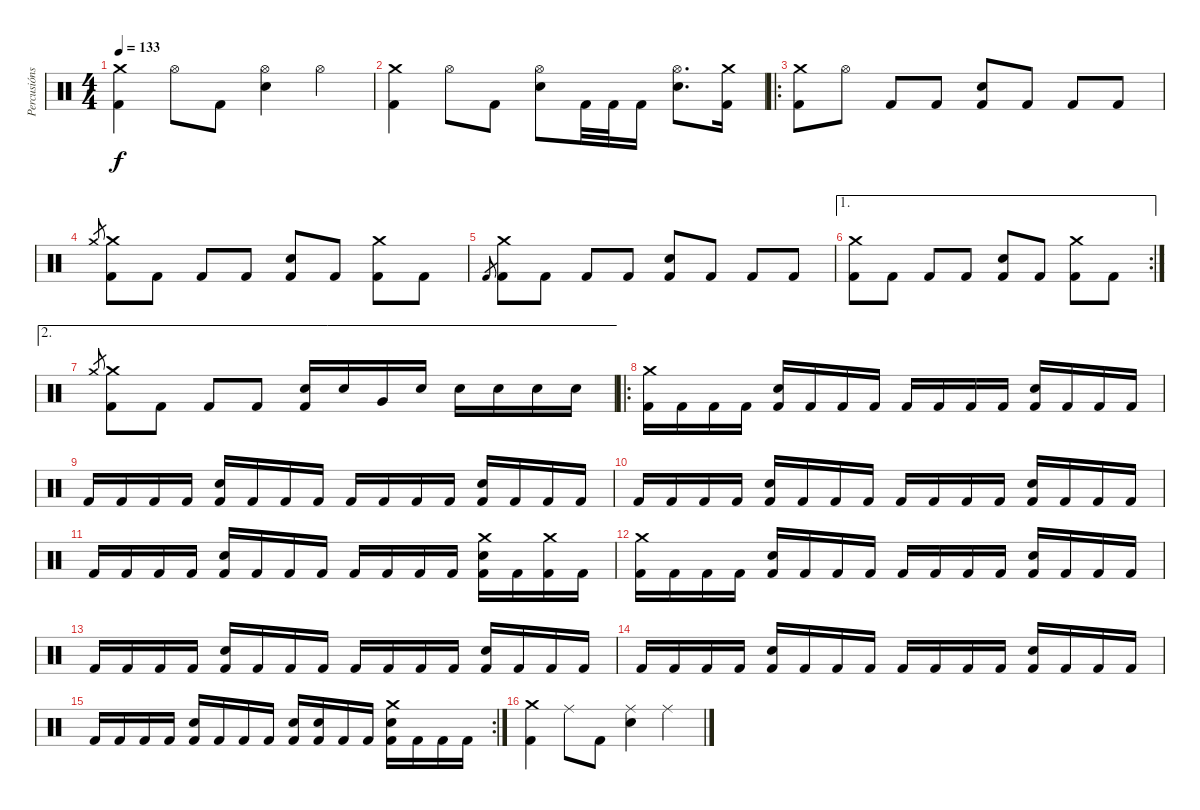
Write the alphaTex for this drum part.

\track ("Percusións" "Percusións") {instrument percussion}
\staff {score}
\articulation defaults
\ts (4 4)
\tempo 133
\clef neutral
\ks c
("Crash medium (hit)" "Kick (hit) 2").4{dy f} "Hi-Hat (open)".8 "Kick (hit) 2".8 ("Hi-Hat (open)" "Snare (hit) 2").4 "Hi-Hat (open)".4 |
("Crash medium (hit)" "Kick (hit) 2").4 "Hi-Hat (open)".8 "Kick (hit) 2".8 ("Hi-Hat (open)" "Snare (hit) 2").8 "Kick (hit) 2".32 "Kick (hit) 2".32 "Kick (hit) 2".16 ("Hi-Hat (open)" "Snare (hit) 2").8{d} ("Crash medium (hit)" "Kick (hit) 2").16 |
\ro
("Crash medium (hit)" "Kick (hit) 2").8 "Hi-Hat (open)".8 "Kick (hit) 2".8 "Kick (hit) 2".8 ("Snare (hit) 2" "Kick (hit) 2").8 "Kick (hit) 2".8 "Kick (hit) 2".8 "Kick (hit) 2".8 |
"Crash medium (hit)".8{gr} ("Crash medium (hit)" "Kick (hit) 2").8 "Kick (hit) 2".8 "Kick (hit) 2".8 "Kick (hit) 2".8 ("Snare (hit) 2" "Kick (hit) 2").8 "Kick (hit) 2".8 ("Crash medium (hit)" "Kick (hit) 2").8 "Kick (hit) 2".8 |
"Kick (hit) 2".8{gr} ("Crash medium (hit)" "Kick (hit) 2").8 "Kick (hit) 2".8 "Kick (hit) 2".8 "Kick (hit) 2".8 ("Snare (hit) 2" "Kick (hit) 2").8 "Kick (hit) 2".8 "Kick (hit) 2".8 "Kick (hit) 2".8 |
\ae 1
\rc 2
("Crash medium (hit)" "Kick (hit) 2").8 "Kick (hit) 2".8 "Kick (hit) 2".8 "Kick (hit) 2".8 ("Kick (hit) 2" "Snare (hit) 2").8 "Kick (hit) 2".8 ("Crash medium (hit)" "Kick (hit) 2").8 "Kick (hit) 2".8 |
\ae 2 "Crash medium (hit)".8{gr}
("Crash medium (hit)" "Kick (hit) 2").8 "Kick (hit) 2".8 "Kick (hit) 2".8 "Kick (hit) 2".8 ("Snare (hit) 2" "Kick (hit) 2").16 "Snare (hit) 2".16 "Very Low Tom (hit)".16 "Snare (hit) 2".16 "Snare (hit) 2".16 "Snare (hit) 2".16 "Snare (hit) 2".16 "Snare (hit) 2".16 |
\ro
("Crash medium (hit)" "Kick (hit) 2").16 "Kick (hit) 2".16 "Kick (hit) 2".16 "Kick (hit) 2".16 ("Kick (hit) 2" "Snare (hit) 2").16 "Kick (hit) 2".16 "Kick (hit) 2".16 "Kick (hit) 2".16 "Kick (hit) 2".16 "Kick (hit) 2".16 "Kick (hit) 2".16 "Kick (hit) 2".16 ("Snare (hit) 2" "Kick (hit) 2").16 "Kick (hit) 2".16 "Kick (hit) 2".16 "Kick (hit) 2".16 |
"Kick (hit) 2".16 "Kick (hit) 2".16 "Kick (hit) 2".16 "Kick (hit) 2".16 ("Kick (hit) 2" "Snare (hit) 2").16 "Kick (hit) 2".16 "Kick (hit) 2".16 "Kick (hit) 2".16 "Kick (hit) 2".16 "Kick (hit) 2".16 "Kick (hit) 2".16 "Kick (hit) 2".16 ("Snare (hit) 2" "Kick (hit) 2").16 "Kick (hit) 2".16 "Kick (hit) 2".16 "Kick (hit) 2".16 |
"Kick (hit) 2".16 "Kick (hit) 2".16 "Kick (hit) 2".16 "Kick (hit) 2".16 ("Kick (hit) 2" "Snare (hit) 2").16 "Kick (hit) 2".16 "Kick (hit) 2".16 "Kick (hit) 2".16 "Kick (hit) 2".16 "Kick (hit) 2".16 "Kick (hit) 2".16 "Kick (hit) 2".16 ("Snare (hit) 2" "Kick (hit) 2").16 "Kick (hit) 2".16 "Kick (hit) 2".16 "Kick (hit) 2".16 |
"Kick (hit) 2".16 "Kick (hit) 2".16 "Kick (hit) 2".16 "Kick (hit) 2".16 ("Kick (hit) 2" "Snare (hit) 2").16 "Kick (hit) 2".16 "Kick (hit) 2".16 "Kick (hit) 2".16 "Kick (hit) 2".16 "Kick (hit) 2".16 "Kick (hit) 2".16 "Kick (hit) 2".16 ("Crash medium (hit)" "Snare (hit) 2" "Kick (hit) 2").16 "Kick (hit) 2".16 ("Crash medium (hit)" "Kick (hit) 2").16 "Kick (hit) 2".16 |
("Crash medium (hit)" "Kick (hit) 2").16 "Kick (hit) 2".16 "Kick (hit) 2".16 "Kick (hit) 2".16 ("Kick (hit) 2" "Snare (hit) 2").16 "Kick (hit) 2".16 "Kick (hit) 2".16 "Kick (hit) 2".16 "Kick (hit) 2".16 "Kick (hit) 2".16 "Kick (hit) 2".16 "Kick (hit) 2".16 ("Snare (hit) 2" "Kick (hit) 2").16 "Kick (hit) 2".16 "Kick (hit) 2".16 "Kick (hit) 2".16 |
"Kick (hit) 2".16 "Kick (hit) 2".16 "Kick (hit) 2".16 "Kick (hit) 2".16 ("Kick (hit) 2" "Snare (hit) 2").16 "Kick (hit) 2".16 "Kick (hit) 2".16 "Kick (hit) 2".16 "Kick (hit) 2".16 "Kick (hit) 2".16 "Kick (hit) 2".16 "Kick (hit) 2".16 ("Snare (hit) 2" "Kick (hit) 2").16 "Kick (hit) 2".16 "Kick (hit) 2".16 "Kick (hit) 2".16 |
"Kick (hit) 2".16 "Kick (hit) 2".16 "Kick (hit) 2".16 "Kick (hit) 2".16 ("Kick (hit) 2" "Snare (hit) 2").16 "Kick (hit) 2".16 "Kick (hit) 2".16 "Kick (hit) 2".16 "Kick (hit) 2".16 "Kick (hit) 2".16 "Kick (hit) 2".16 "Kick (hit) 2".16 ("Snare (hit) 2" "Kick (hit) 2").16 "Kick (hit) 2".16 "Kick (hit) 2".16 "Kick (hit) 2".16 |
\rc 2 "Kick (hit) 2".16 "Kick (hit) 2".16 "Kick (hit) 2".16 "Kick (hit) 2".16
("Kick (hit) 2" "Snare (hit) 2").16 "Kick (hit) 2".16 "Kick (hit) 2".16 "Kick (hit) 2".16 ("Snare (hit) 2" "Kick (hit) 2").16 ("Snare (hit) 2" "Kick (hit) 2").16 "Kick (hit) 2".16 "Kick (hit) 2".16 ("Crash medium (hit)" "Snare (hit) 2" "Kick (hit) 2").16 "Kick (hit) 2".16 "Kick (hit) 2".16 "Kick (hit) 2".16 |
("Crash medium (hit)" "Kick (hit) 2").4 "Ride (middle)".8 "Kick (hit) 2".8 ("Ride (middle)" "Snare (hit) 2").4 "Ride (middle)".4
